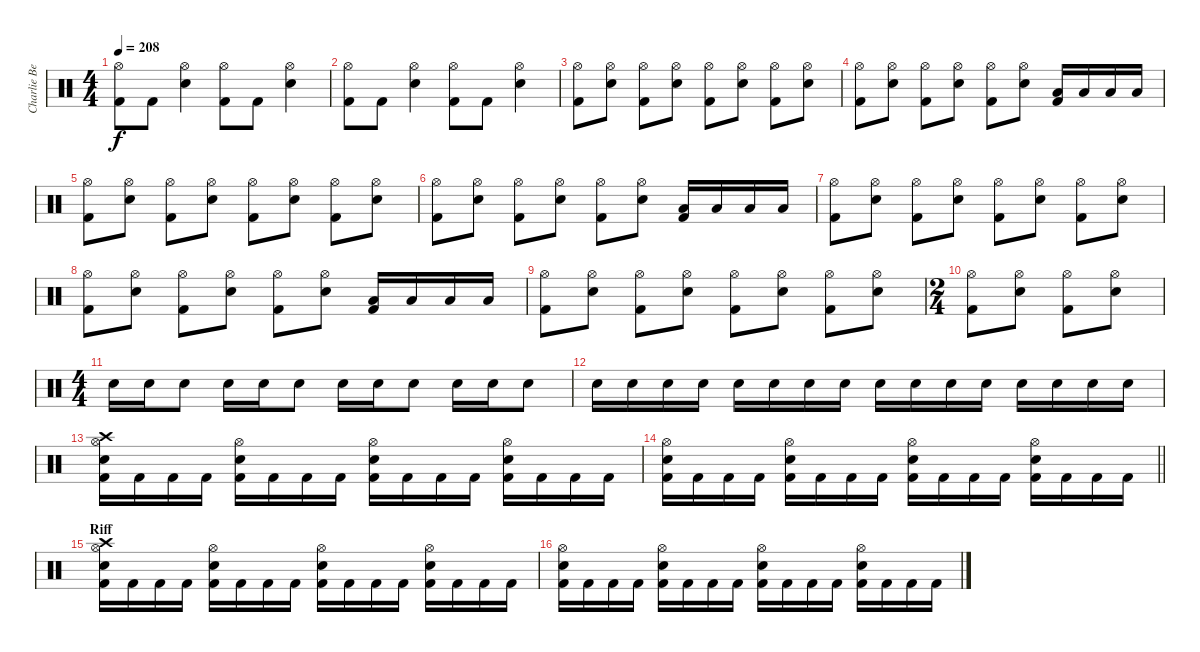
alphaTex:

\track ("Charlie Benate" "Charlie Be") {instrument percussion}
\staff {score}
\articulation defaults
\ts (4 4)
\tempo 208
\clef neutral
\ks c
("Hi-Hat (open)" "Kick (hit) 2").8{dy f} "Kick (hit) 2".8 ("Hi-Hat (open)" "Electric Snare (hit)").4 ("Hi-Hat (open)" "Kick (hit) 2").8 "Kick (hit) 2".8 ("Hi-Hat (open)" "Electric Snare (hit)").4 |
("Hi-Hat (open)" "Kick (hit) 2").8 "Kick (hit) 2".8 ("Hi-Hat (open)" "Electric Snare (hit)").4 ("Hi-Hat (open)" "Kick (hit) 2").8 "Kick (hit) 2".8 ("Hi-Hat (open)" "Electric Snare (hit)").4 |
("Hi-Hat (open)" "Kick (hit) 2").8 ("Hi-Hat (open)" "Electric Snare (hit)").8 ("Hi-Hat (open)" "Kick (hit) 2").8 ("Hi-Hat (open)" "Electric Snare (hit)").8 ("Hi-Hat (open)" "Kick (hit) 2").8 ("Hi-Hat (open)" "Electric Snare (hit)").8 ("Hi-Hat (open)" "Kick (hit) 2").8 ("Hi-Hat (open)" "Electric Snare (hit)").8 |
("Hi-Hat (open)" "Kick (hit) 2").8 ("Hi-Hat (open)" "Electric Snare (hit)").8 ("Hi-Hat (open)" "Kick (hit) 2").8 ("Hi-Hat (open)" "Electric Snare (hit)").8 ("Hi-Hat (open)" "Kick (hit) 2").8 ("Hi-Hat (open)" "Electric Snare (hit)").8 ("Low Floor Tom (hit)" "Kick (hit) 2").16 "Low Floor Tom (hit)".16 "Low Floor Tom (hit)".16 "Low Floor Tom (hit)".16 |
("Hi-Hat (open)" "Kick (hit) 2").8 ("Hi-Hat (open)" "Electric Snare (hit)").8 ("Hi-Hat (open)" "Kick (hit) 2").8 ("Hi-Hat (open)" "Electric Snare (hit)").8 ("Hi-Hat (open)" "Kick (hit) 2").8 ("Hi-Hat (open)" "Electric Snare (hit)").8 ("Hi-Hat (open)" "Kick (hit) 2").8 ("Hi-Hat (open)" "Electric Snare (hit)").8 |
("Hi-Hat (open)" "Kick (hit) 2").8 ("Hi-Hat (open)" "Electric Snare (hit)").8 ("Hi-Hat (open)" "Kick (hit) 2").8 ("Hi-Hat (open)" "Electric Snare (hit)").8 ("Hi-Hat (open)" "Kick (hit) 2").8 ("Hi-Hat (open)" "Electric Snare (hit)").8 ("Low Floor Tom (hit)" "Kick (hit) 2").16 "Low Floor Tom (hit)".16 "Low Floor Tom (hit)".16 "Low Floor Tom (hit)".16 |
("Hi-Hat (open)" "Kick (hit) 2").8 ("Hi-Hat (open)" "Electric Snare (hit)").8 ("Hi-Hat (open)" "Kick (hit) 2").8 ("Hi-Hat (open)" "Electric Snare (hit)").8 ("Hi-Hat (open)" "Kick (hit) 2").8 ("Hi-Hat (open)" "Electric Snare (hit)").8 ("Hi-Hat (open)" "Kick (hit) 2").8 ("Hi-Hat (open)" "Electric Snare (hit)").8 |
("Hi-Hat (open)" "Kick (hit) 2").8 ("Hi-Hat (open)" "Electric Snare (hit)").8 ("Hi-Hat (open)" "Kick (hit) 2").8 ("Hi-Hat (open)" "Electric Snare (hit)").8 ("Hi-Hat (open)" "Kick (hit) 2").8 ("Hi-Hat (open)" "Electric Snare (hit)").8 ("Low Floor Tom (hit)" "Kick (hit) 2").16 "Low Floor Tom (hit)".16 "Low Floor Tom (hit)".16 "Low Floor Tom (hit)".16 |
("Hi-Hat (open)" "Kick (hit) 2").8 ("Hi-Hat (open)" "Electric Snare (hit)").8 ("Hi-Hat (open)" "Kick (hit) 2").8 ("Hi-Hat (open)" "Electric Snare (hit)").8 ("Hi-Hat (open)" "Kick (hit) 2").8 ("Hi-Hat (open)" "Electric Snare (hit)").8 ("Hi-Hat (open)" "Kick (hit) 2").8 ("Hi-Hat (open)" "Electric Snare (hit)").8 |
\ts (2 4)
("Hi-Hat (open)" "Kick (hit) 2").8 ("Hi-Hat (open)" "Electric Snare (hit)").8 ("Hi-Hat (open)" "Kick (hit) 2").8 ("Hi-Hat (open)" "Electric Snare (hit)").8 |
\ts (4 4)
"Electric Snare (hit)".16 "Electric Snare (hit)".16 "Electric Snare (hit)".8 "Electric Snare (hit)".16 "Electric Snare (hit)".16 "Electric Snare (hit)".8 "Electric Snare (hit)".16 "Electric Snare (hit)".16 "Electric Snare (hit)".8 "Electric Snare (hit)".16 "Electric Snare (hit)".16 "Electric Snare (hit)".8 |
"Electric Snare (hit)".16 "Electric Snare (hit)".16 "Electric Snare (hit)".16 "Electric Snare (hit)".16 "Electric Snare (hit)".16 "Electric Snare (hit)".16 "Electric Snare (hit)".16 "Electric Snare (hit)".16 "Electric Snare (hit)".16 "Electric Snare (hit)".16 "Electric Snare (hit)".16 "Electric Snare (hit)".16 "Electric Snare (hit)".16 "Electric Snare (hit)".16 "Electric Snare (hit)".16 "Electric Snare (hit)".16 |
("Hi-Hat (open)" "Crash high (hit)" "Electric Snare (hit)" "Kick (hit) 2").16 "Kick (hit) 2".16 "Kick (hit) 2".16 "Kick (hit) 2".16 ("Hi-Hat (open)" "Electric Snare (hit)" "Kick (hit) 2").16 "Kick (hit) 2".16 "Kick (hit) 2".16 "Kick (hit) 2".16 ("Hi-Hat (open)" "Electric Snare (hit)" "Kick (hit) 2").16 "Kick (hit) 2".16 "Kick (hit) 2".16 "Kick (hit) 2".16 ("Hi-Hat (open)" "Electric Snare (hit)" "Kick (hit) 2").16 "Kick (hit) 2".16 "Kick (hit) 2".16 "Kick (hit) 2".16 |
\barLineRight lightlight
("Hi-Hat (open)" "Electric Snare (hit)" "Kick (hit) 2").16 "Kick (hit) 2".16 "Kick (hit) 2".16 "Kick (hit) 2".16 ("Hi-Hat (open)" "Electric Snare (hit)" "Kick (hit) 2").16 "Kick (hit) 2".16 "Kick (hit) 2".16 "Kick (hit) 2".16 ("Hi-Hat (open)" "Electric Snare (hit)" "Kick (hit) 2").16 "Kick (hit) 2".16 "Kick (hit) 2".16 "Kick (hit) 2".16 ("Hi-Hat (open)" "Electric Snare (hit)" "Kick (hit) 2").16 "Kick (hit) 2".16 "Kick (hit) 2".16 "Kick (hit) 2".16 |
\section ("" "Riff")
("Hi-Hat (open)" "Crash high (hit)" "Electric Snare (hit)" "Kick (hit) 2").16 "Kick (hit) 2".16 "Kick (hit) 2".16 "Kick (hit) 2".16 ("Hi-Hat (open)" "Electric Snare (hit)" "Kick (hit) 2").16 "Kick (hit) 2".16 "Kick (hit) 2".16 "Kick (hit) 2".16 ("Hi-Hat (open)" "Electric Snare (hit)" "Kick (hit) 2").16 "Kick (hit) 2".16 "Kick (hit) 2".16 "Kick (hit) 2".16 ("Hi-Hat (open)" "Electric Snare (hit)" "Kick (hit) 2").16 "Kick (hit) 2".16 "Kick (hit) 2".16 "Kick (hit) 2".16 |
("Hi-Hat (open)" "Electric Snare (hit)" "Kick (hit) 2").16 "Kick (hit) 2".16 "Kick (hit) 2".16 "Kick (hit) 2".16 ("Hi-Hat (open)" "Electric Snare (hit)" "Kick (hit) 2").16 "Kick (hit) 2".16 "Kick (hit) 2".16 "Kick (hit) 2".16 ("Hi-Hat (open)" "Electric Snare (hit)" "Kick (hit) 2").16 "Kick (hit) 2".16 "Kick (hit) 2".16 "Kick (hit) 2".16 ("Hi-Hat (open)" "Electric Snare (hit)" "Kick (hit) 2").16 "Kick (hit) 2".16 "Kick (hit) 2".16 "Kick (hit) 2".16
